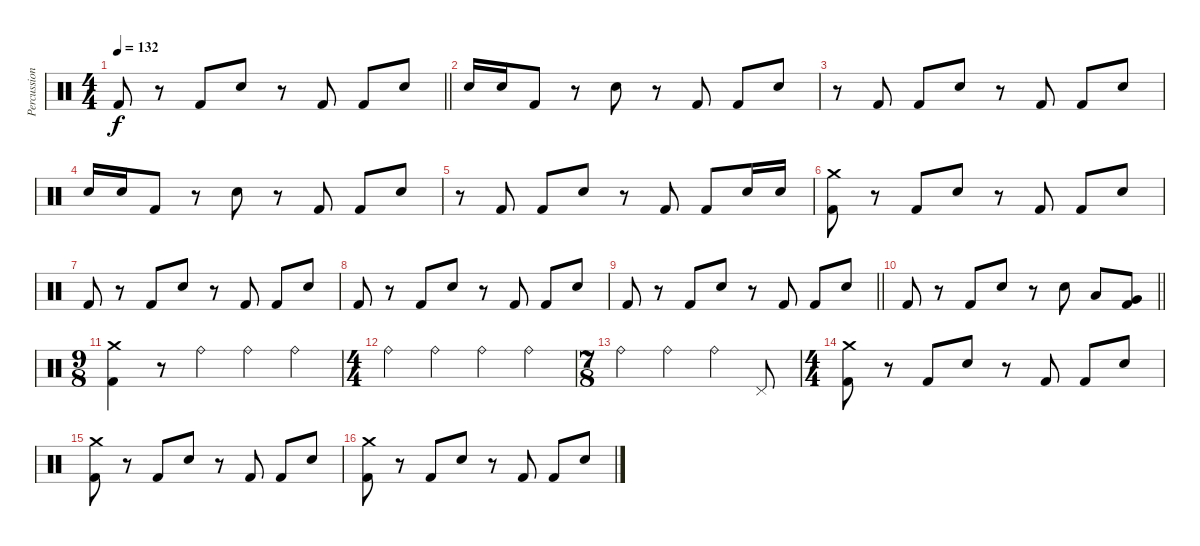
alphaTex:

\track ("Percussion" "Percussion") {instrument percussion}
\staff {score}
\articulation defaults
\ts (4 4)
\tempo 132
\clef neutral
\barLineRight lightlight
\ks c "Kick (hit) 2".8{dy f}
r.8 "Kick (hit) 2".8 "Snare (hit) 2".8 r.8 "Kick (hit) 2".8 "Kick (hit) 2".8 "Snare (hit) 2".8 |
"Snare (hit) 2".16 "Snare (hit) 2".16 "Kick (hit) 2".8 r.8 "Snare (hit) 2".8 r.8 "Kick (hit) 2".8 "Kick (hit) 2".8 "Snare (hit) 2".8 |
r.8 "Kick (hit) 2".8 "Kick (hit) 2".8 "Snare (hit) 2".8 r.8 "Kick (hit) 2".8 "Kick (hit) 2".8 "Snare (hit) 2".8 |
"Snare (hit) 2".16 "Snare (hit) 2".16 "Kick (hit) 2".8 r.8 "Snare (hit) 2".8 r.8 "Kick (hit) 2".8 "Kick (hit) 2".8 "Snare (hit) 2".8 |
r.8 "Kick (hit) 2".8 "Kick (hit) 2".8 "Snare (hit) 2".8 r.8 "Kick (hit) 2".8 "Kick (hit) 2".8 "Snare (hit) 2".16 "Snare (hit) 2".16 |
("Crash medium (hit)" "Kick (hit) 2").8 r.8 "Kick (hit) 2".8 "Snare (hit) 2".8 r.8 "Kick (hit) 2".8 "Kick (hit) 2".8 "Snare (hit) 2".8 |
"Kick (hit) 2".8 r.8 "Kick (hit) 2".8 "Snare (hit) 2".8 r.8 "Kick (hit) 2".8 "Kick (hit) 2".8 "Snare (hit) 2".8 |
"Kick (hit) 2".8 r.8 "Kick (hit) 2".8 "Snare (hit) 2".8 r.8 "Kick (hit) 2".8 "Kick (hit) 2".8 "Snare (hit) 2".8 |
\barLineRight lightlight "Kick (hit) 2".8
r.8 "Kick (hit) 2".8 "Snare (hit) 2".8 r.8 "Kick (hit) 2".8 "Kick (hit) 2".8 "Snare (hit) 2".8 |
\barLineRight lightlight "Kick (hit) 2".8
r.8 "Kick (hit) 2".8 "Snare (hit) 2".8 r.8 "Snare (hit) 2".8 "Low Tom (hit)".8 ("Very Low Tom (hit)" "Kick (hit) 2").8 |
\ts (9 8)
("Crash medium (hit)" "Kick (hit) 2").4 r.8 "Ride (bell)".4 "Ride (bell)".4 "Ride (bell)".4 |
\ts (4 4)
"Ride (bell)".4 "Ride (bell)".4 "Ride (bell)".4 "Ride (bell)".4 |
\ts (7 8)
"Ride (bell)".4 "Ride (bell)".4 "Ride (bell)".4 "Pedal Hi-Hat (hit)".8 |
\ts (4 4)
("Crash medium (hit)" "Kick (hit) 2").8 r.8 "Kick (hit) 2".8 "Snare (hit) 2".8 r.8 "Kick (hit) 2".8 "Kick (hit) 2".8 "Snare (hit) 2".8 |
("Crash medium (hit)" "Kick (hit) 2").8 r.8 "Kick (hit) 2".8 "Snare (hit) 2".8 r.8 "Kick (hit) 2".8 "Kick (hit) 2".8 "Snare (hit) 2".8 |
("Crash medium (hit)" "Kick (hit) 2").8 r.8 "Kick (hit) 2".8 "Snare (hit) 2".8 r.8 "Kick (hit) 2".8 "Kick (hit) 2".8 "Snare (hit) 2".8
